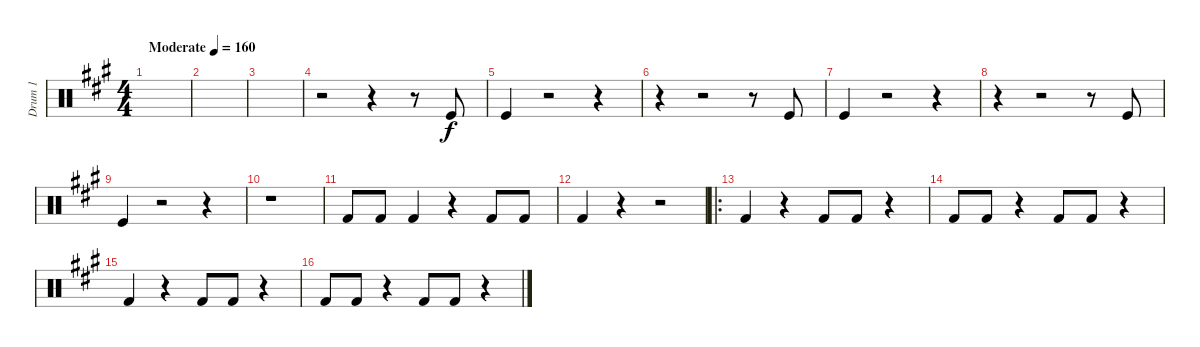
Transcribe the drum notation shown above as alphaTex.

\track ("Drum 1" "Drum 1") {instrument percussion}
\staff {score}
\articulation defaults
\ts (4 4)
\tempo (160 "Moderate")
\clef neutral
\ks a
|
|
|
r.2 r.4 r.8 "Kick (hit)".8 |
"Kick (hit)".4 r.2 r.4 |
r.4 r.2 r.8 "Kick (hit)".8 |
"Kick (hit)".4 r.2 r.4 |
r.4 r.2 r.8 "Kick (hit)".8 |
"Kick (hit)".4 r.2 r.4 |
r.1 |
"Kick (hit) 2".8 "Kick (hit) 2".8 "Kick (hit) 2".4 r.4 "Kick (hit) 2".8 "Kick (hit) 2".8 |
"Kick (hit) 2".4 r.4 r.2 |
\ro "Kick (hit) 2".4
r.4 "Kick (hit) 2".8 "Kick (hit) 2".8 r.4 |
"Kick (hit) 2".8 "Kick (hit) 2".8 r.4 "Kick (hit) 2".8 "Kick (hit) 2".8 r.4 |
"Kick (hit) 2".4 r.4 "Kick (hit) 2".8 "Kick (hit) 2".8 r.4 |
"Kick (hit) 2".8 "Kick (hit) 2".8 r.4 "Kick (hit) 2".8 "Kick (hit) 2".8 r.4
